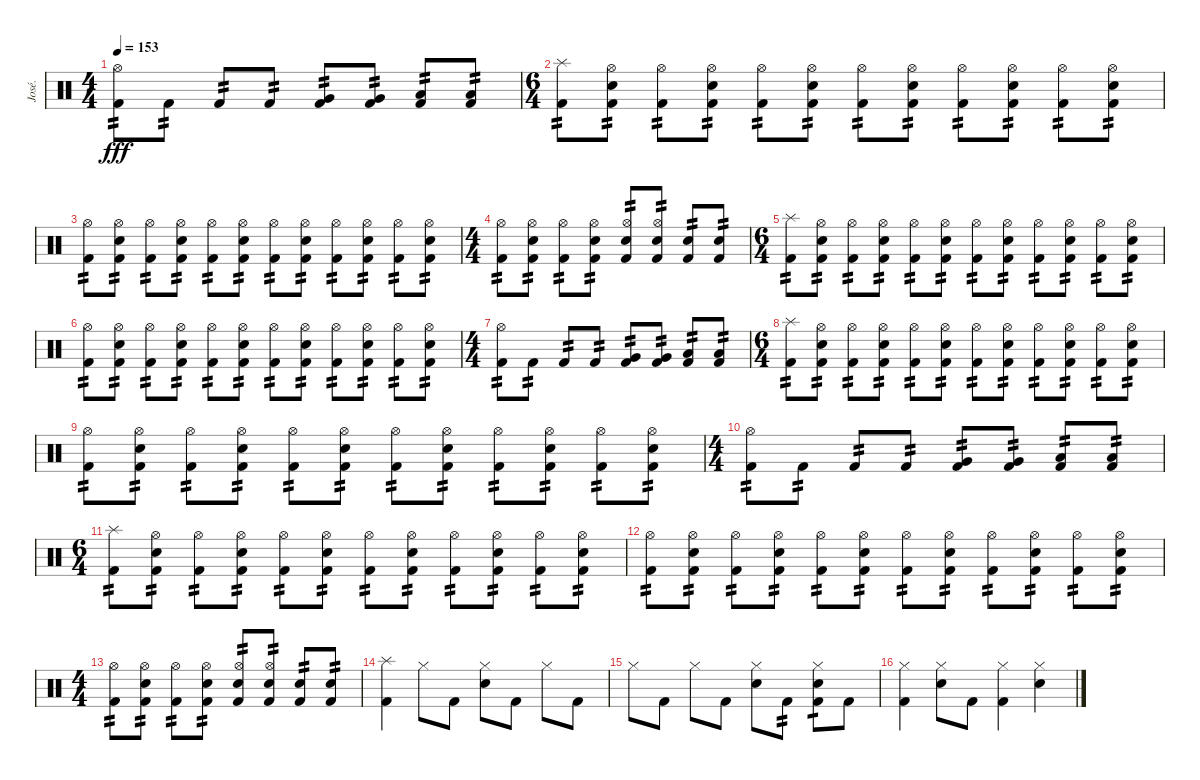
\track ("José." "José.") {instrument percussion}
\staff {score}
\articulation defaults
\ts (4 4)
\tempo 153
\clef neutral
\ks c
("Kick (hit) 2" "Hi-Hat (open)").8{tp 2 dy fff} "Kick (hit) 2".8{tp 2} "Kick (hit) 2".8{tp 2} "Kick (hit) 2".8{tp 2} ("Kick (hit) 2" "Very Low Tom (hit)").8{tp 2} ("Kick (hit) 2" "Very Low Tom (hit)").8{tp 2} ("Kick (hit) 2" "Low Floor Tom (hit)").8{tp 2} ("Kick (hit) 2" "Low Floor Tom (hit)").8{tp 2} |
\ts (6 4)
("Kick (hit) 2" "Splash (hit)").8{tp 2} ("Kick (hit) 2" "Snare (hit) 2" "Hi-Hat (open)").8{tp 2} ("Kick (hit) 2" "Hi-Hat (open)").8{tp 2} ("Kick (hit) 2" "Snare (hit) 2" "Hi-Hat (open)").8{tp 2} ("Kick (hit) 2" "Hi-Hat (open)").8{tp 2} ("Kick (hit) 2" "Snare (hit) 2" "Hi-Hat (open)").8{tp 2} ("Kick (hit) 2" "Hi-Hat (open)").8{tp 2} ("Kick (hit) 2" "Snare (hit) 2" "Hi-Hat (open)").8{tp 2} ("Kick (hit) 2" "Hi-Hat (open)").8{tp 2} ("Kick (hit) 2" "Snare (hit) 2" "Hi-Hat (open)").8{tp 2} ("Kick (hit) 2" "Hi-Hat (open)").8{tp 2} ("Kick (hit) 2" "Snare (hit) 2" "Hi-Hat (open)").8{tp 2} |
("Kick (hit) 2" "Hi-Hat (open)").8{tp 2} ("Kick (hit) 2" "Snare (hit) 2" "Hi-Hat (open)").8{tp 2} ("Kick (hit) 2" "Hi-Hat (open)").8{tp 2} ("Kick (hit) 2" "Snare (hit) 2" "Hi-Hat (open)").8{tp 2} ("Kick (hit) 2" "Hi-Hat (open)").8{tp 2} ("Kick (hit) 2" "Snare (hit) 2" "Hi-Hat (open)").8{tp 2} ("Kick (hit) 2" "Hi-Hat (open)").8{tp 2} ("Kick (hit) 2" "Snare (hit) 2" "Hi-Hat (open)").8{tp 2} ("Kick (hit) 2" "Hi-Hat (open)").8{tp 2} ("Kick (hit) 2" "Snare (hit) 2" "Hi-Hat (open)").8{tp 2} ("Kick (hit) 2" "Hi-Hat (open)").8{tp 2} ("Kick (hit) 2" "Snare (hit) 2" "Hi-Hat (open)").8{tp 2} |
\ts (4 4)
("Kick (hit) 2" "Hi-Hat (open)").8{tp 2} ("Kick (hit) 2" "Snare (hit) 2" "Hi-Hat (open)").8{tp 2} ("Kick (hit) 2" "Hi-Hat (open)").8{tp 2} ("Kick (hit) 2" "Snare (hit) 2" "Hi-Hat (open)").8{tp 2} ("Kick (hit) 2" "Snare (hit) 2" "Hi-Hat (open)").8{tp 2} ("Kick (hit) 2" "Snare (hit) 2" "Hi-Hat (open)").8{tp 2} ("Kick (hit) 2" "Snare (hit) 2").8{tp 2} ("Kick (hit) 2" "Snare (hit) 2").8{tp 2} |
\ts (6 4)
("Kick (hit) 2" "Splash (hit)").8{tp 2} ("Kick (hit) 2" "Snare (hit) 2" "Hi-Hat (open)").8{tp 2} ("Kick (hit) 2" "Hi-Hat (open)").8{tp 2} ("Kick (hit) 2" "Snare (hit) 2" "Hi-Hat (open)").8{tp 2} ("Kick (hit) 2" "Hi-Hat (open)").8{tp 2} ("Kick (hit) 2" "Snare (hit) 2" "Hi-Hat (open)").8{tp 2} ("Kick (hit) 2" "Hi-Hat (open)").8{tp 2} ("Kick (hit) 2" "Snare (hit) 2" "Hi-Hat (open)").8{tp 2} ("Kick (hit) 2" "Hi-Hat (open)").8{tp 2} ("Kick (hit) 2" "Snare (hit) 2" "Hi-Hat (open)").8{tp 2} ("Kick (hit) 2" "Hi-Hat (open)").8{tp 2} ("Kick (hit) 2" "Snare (hit) 2" "Hi-Hat (open)").8{tp 2} |
("Kick (hit) 2" "Hi-Hat (open)").8{tp 2} ("Kick (hit) 2" "Snare (hit) 2" "Hi-Hat (open)").8{tp 2} ("Kick (hit) 2" "Hi-Hat (open)").8{tp 2} ("Kick (hit) 2" "Snare (hit) 2" "Hi-Hat (open)").8{tp 2} ("Kick (hit) 2" "Hi-Hat (open)").8{tp 2} ("Kick (hit) 2" "Snare (hit) 2" "Hi-Hat (open)").8{tp 2} ("Kick (hit) 2" "Hi-Hat (open)").8{tp 2} ("Kick (hit) 2" "Snare (hit) 2" "Hi-Hat (open)").8{tp 2} ("Kick (hit) 2" "Hi-Hat (open)").8{tp 2} ("Kick (hit) 2" "Snare (hit) 2" "Hi-Hat (open)").8{tp 2} ("Kick (hit) 2" "Hi-Hat (open)").8{tp 2} ("Kick (hit) 2" "Snare (hit) 2" "Hi-Hat (open)").8{tp 2} |
\ts (4 4)
("Kick (hit) 2" "Hi-Hat (open)").8{tp 2} "Kick (hit) 2".8{tp 2} "Kick (hit) 2".8{tp 2} "Kick (hit) 2".8{tp 2} ("Kick (hit) 2" "Very Low Tom (hit)").8{tp 2} ("Kick (hit) 2" "Very Low Tom (hit)").8{tp 2} ("Kick (hit) 2" "Low Floor Tom (hit)").8{tp 2} ("Kick (hit) 2" "Low Floor Tom (hit)").8{tp 2} |
\ts (6 4)
("Kick (hit) 2" "Splash (hit)").8{tp 2} ("Kick (hit) 2" "Snare (hit) 2" "Hi-Hat (open)").8{tp 2} ("Kick (hit) 2" "Hi-Hat (open)").8{tp 2} ("Kick (hit) 2" "Snare (hit) 2" "Hi-Hat (open)").8{tp 2} ("Kick (hit) 2" "Hi-Hat (open)").8{tp 2} ("Kick (hit) 2" "Snare (hit) 2" "Hi-Hat (open)").8{tp 2} ("Kick (hit) 2" "Hi-Hat (open)").8{tp 2} ("Kick (hit) 2" "Snare (hit) 2" "Hi-Hat (open)").8{tp 2} ("Kick (hit) 2" "Hi-Hat (open)").8{tp 2} ("Kick (hit) 2" "Snare (hit) 2" "Hi-Hat (open)").8{tp 2} ("Kick (hit) 2" "Hi-Hat (open)").8{tp 2} ("Kick (hit) 2" "Snare (hit) 2" "Hi-Hat (open)").8{tp 2} |
("Kick (hit) 2" "Hi-Hat (open)").8{tp 2} ("Kick (hit) 2" "Snare (hit) 2" "Hi-Hat (open)").8{tp 2} ("Kick (hit) 2" "Hi-Hat (open)").8{tp 2} ("Kick (hit) 2" "Snare (hit) 2" "Hi-Hat (open)").8{tp 2} ("Kick (hit) 2" "Hi-Hat (open)").8{tp 2} ("Kick (hit) 2" "Snare (hit) 2" "Hi-Hat (open)").8{tp 2} ("Kick (hit) 2" "Hi-Hat (open)").8{tp 2} ("Kick (hit) 2" "Snare (hit) 2" "Hi-Hat (open)").8{tp 2} ("Kick (hit) 2" "Hi-Hat (open)").8{tp 2} ("Kick (hit) 2" "Snare (hit) 2" "Hi-Hat (open)").8{tp 2} ("Kick (hit) 2" "Hi-Hat (open)").8{tp 2} ("Kick (hit) 2" "Snare (hit) 2" "Hi-Hat (open)").8{tp 2} |
\ts (4 4)
("Kick (hit) 2" "Hi-Hat (open)").8{tp 2} "Kick (hit) 2".8{tp 2} "Kick (hit) 2".8{tp 2} "Kick (hit) 2".8{tp 2} ("Kick (hit) 2" "Very Low Tom (hit)").8{tp 2} ("Kick (hit) 2" "Very Low Tom (hit)").8{tp 2} ("Kick (hit) 2" "Low Floor Tom (hit)").8{tp 2} ("Kick (hit) 2" "Low Floor Tom (hit)").8{tp 2} |
\ts (6 4)
("Kick (hit) 2" "Splash (hit)").8{tp 2} ("Kick (hit) 2" "Snare (hit) 2" "Hi-Hat (open)").8{tp 2} ("Kick (hit) 2" "Hi-Hat (open)").8{tp 2} ("Kick (hit) 2" "Snare (hit) 2" "Hi-Hat (open)").8{tp 2} ("Kick (hit) 2" "Hi-Hat (open)").8{tp 2} ("Kick (hit) 2" "Snare (hit) 2" "Hi-Hat (open)").8{tp 2} ("Kick (hit) 2" "Hi-Hat (open)").8{tp 2} ("Kick (hit) 2" "Snare (hit) 2" "Hi-Hat (open)").8{tp 2} ("Kick (hit) 2" "Hi-Hat (open)").8{tp 2} ("Kick (hit) 2" "Snare (hit) 2" "Hi-Hat (open)").8{tp 2} ("Kick (hit) 2" "Hi-Hat (open)").8{tp 2} ("Kick (hit) 2" "Snare (hit) 2" "Hi-Hat (open)").8{tp 2} |
("Kick (hit) 2" "Hi-Hat (open)").8{tp 2} ("Kick (hit) 2" "Snare (hit) 2" "Hi-Hat (open)").8{tp 2} ("Kick (hit) 2" "Hi-Hat (open)").8{tp 2} ("Kick (hit) 2" "Snare (hit) 2" "Hi-Hat (open)").8{tp 2} ("Kick (hit) 2" "Hi-Hat (open)").8{tp 2} ("Kick (hit) 2" "Snare (hit) 2" "Hi-Hat (open)").8{tp 2} ("Kick (hit) 2" "Hi-Hat (open)").8{tp 2} ("Kick (hit) 2" "Snare (hit) 2" "Hi-Hat (open)").8{tp 2} ("Kick (hit) 2" "Hi-Hat (open)").8{tp 2} ("Kick (hit) 2" "Snare (hit) 2" "Hi-Hat (open)").8{tp 2} ("Kick (hit) 2" "Hi-Hat (open)").8{tp 2} ("Kick (hit) 2" "Snare (hit) 2" "Hi-Hat (open)").8{tp 2} |
\ts (4 4)
("Kick (hit) 2" "Hi-Hat (open)").8{tp 2} ("Kick (hit) 2" "Snare (hit) 2" "Hi-Hat (open)").8{tp 2} ("Kick (hit) 2" "Hi-Hat (open)").8{tp 2} ("Kick (hit) 2" "Snare (hit) 2" "Hi-Hat (open)").8{tp 2} ("Kick (hit) 2" "Snare (hit) 2" "Hi-Hat (open)").8{tp 2} ("Kick (hit) 2" "Snare (hit) 2" "Hi-Hat (open)").8{tp 2} ("Kick (hit) 2" "Snare (hit) 2").8{tp 2} ("Kick (hit) 2" "Snare (hit) 2").8{tp 2} |
("Kick (hit) 2" "Splash (hit)").4 "Hi-Hat (closed)".8 "Kick (hit) 2".8 ("Snare (hit) 2" "Hi-Hat (closed)").8 "Kick (hit) 2".8 "Hi-Hat (closed)".8 "Kick (hit) 2".8 |
"Hi-Hat (closed)".8 "Kick (hit) 2".8 "Hi-Hat (closed)".8 "Kick (hit) 2".8 ("Snare (hit) 2" "Hi-Hat (closed)").8 "Kick (hit) 2".8{tp 2} ("Kick (hit) 2" "Snare (hit) 2" "Hi-Hat (closed)").8{tp 1} "Kick (hit) 2".8 |
("Kick (hit) 2" "Hi-Hat (closed)").4 ("Snare (hit) 2" "Hi-Hat (closed)").8 "Kick (hit) 2".8 ("Kick (hit) 2" "Hi-Hat (closed)").4 ("Snare (hit) 2" "Hi-Hat (closed)").4
